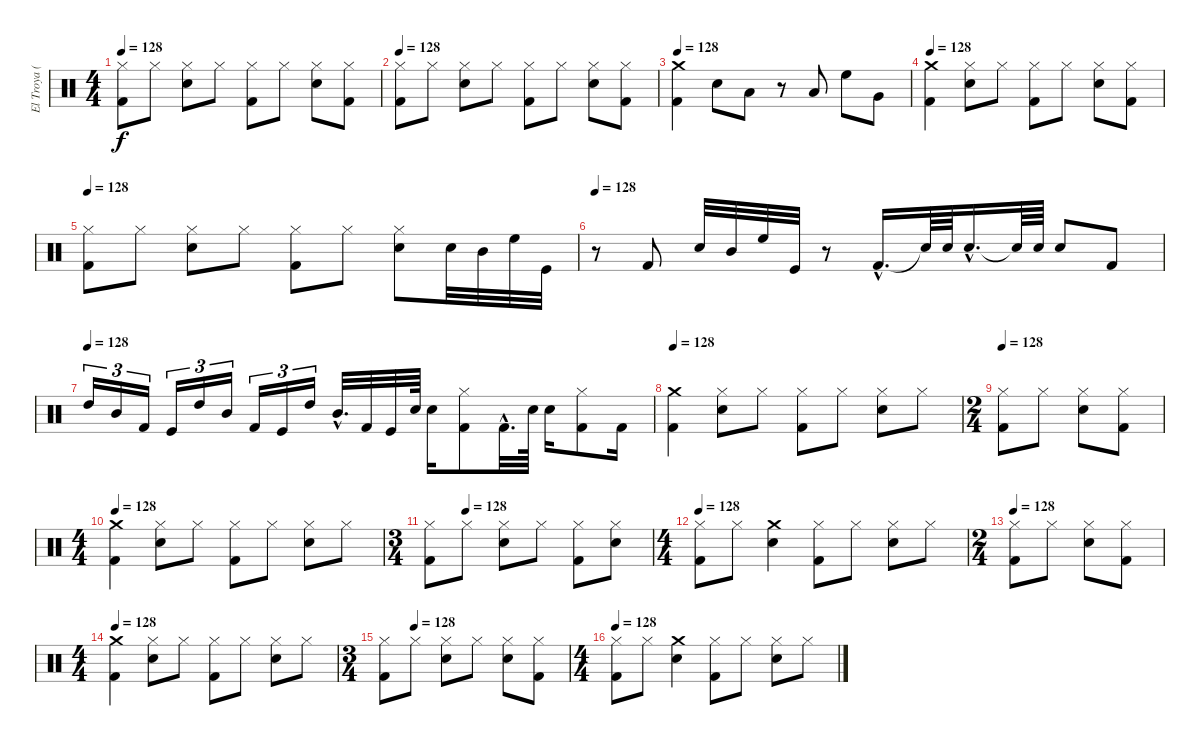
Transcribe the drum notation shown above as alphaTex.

\track ("El Troya (premio)" "El Troya (") {instrument percussion}
\staff {score}
\articulation defaults
\ts (4 4)
\tempo 128
\clef neutral
\ks c
("Hi-Hat (closed)" "Kick (hit) 2").8{dy f} "Hi-Hat (closed)".8 ("Snare (hit) 2" "Hi-Hat (closed)").8 "Hi-Hat (closed)".8 ("Hi-Hat (closed)" "Kick (hit) 2").8 "Hi-Hat (closed)".8 ("Snare (hit) 2" "Hi-Hat (closed)").8 ("Kick (hit) 2" "Hi-Hat (closed)").8 |
\tempo 128
("Hi-Hat (closed)" "Kick (hit) 2").8 "Hi-Hat (closed)".8 ("Snare (hit) 2" "Hi-Hat (closed)").8 "Hi-Hat (closed)".8 ("Hi-Hat (closed)" "Kick (hit) 2").8 "Hi-Hat (closed)".8 ("Snare (hit) 2" "Hi-Hat (closed)").8 ("Kick (hit) 2" "Hi-Hat (closed)").8 |
\tempo 128
("Kick (hit) 2" "Crash medium (hit)").4 "Snare (hit) 2".8 "Low Tom (hit)".8 r.8 "Low Tom (hit)".8 "High Floor Tom (hit)".8 "Very Low Tom (hit)".8 |
\tempo 128
("Kick (hit) 2" "Crash medium (hit)").4 ("Snare (hit) 2" "Hi-Hat (closed)").8 "Hi-Hat (closed)".8 ("Hi-Hat (closed)" "Kick (hit) 2").8 "Hi-Hat (closed)".8 ("Snare (hit) 2" "Hi-Hat (closed)").8 ("Kick (hit) 2" "Hi-Hat (closed)").8 |
\tempo 128
("Hi-Hat (closed)" "Kick (hit) 2").8 "Hi-Hat (closed)".8 ("Snare (hit) 2" "Hi-Hat (closed)").8 "Hi-Hat (closed)".8 ("Hi-Hat (closed)" "Kick (hit) 2").8 "Hi-Hat (closed)".8 ("Snare (hit) 2" "Hi-Hat (closed)").8 "Snare (hit) 2".32 "Mid Tom (hit)".32 "High Floor Tom (hit)".32 "Kick (hit)".32 |
\tempo 128
r.8 "Kick (hit) 2".8 "Snare (hit) 2".32 "Mid Tom (hit)".32 "High Floor Tom (hit)".32 "Kick (hit)".32 r.8 "Kick (hit) 2"{hac}.16{d} "Snare (hit)"{t}.64 "Snare (hit) 2".64 "Snare (hit) 2"{hac}.16{d} "Snare (hit)"{t}.64 "Snare (hit) 2".64 "Snare (hit) 2".8 "Kick (hit) 2".8 |
\tempo (128)
"High Tom (hit)".16{tu (3 2)} "Mid Tom (hit)".16{tu (3 2)} "Kick (hit) 2".16{tu (3 2)} "Kick (hit)".16{tu (3 2)} "High Tom (hit)".16{tu (3 2)} "Mid Tom (hit)".16{tu (3 2)} "Kick (hit) 2".16{tu (3 2)} "Kick (hit)".16{tu (3 2)} "High Tom (hit)".16{tu (3 2)} "Mid Tom (hit)"{hac}.32{d} "Kick (hit) 2".32 "Kick (hit)".32 "Snare (hit) 2".64 "Snare (hit) 2".16 ("Hi-Hat (closed)" "Kick (hit) 2").8 "Kick (hit) 2"{hac}.32{d} "Snare (hit) 2".64 "Snare (hit) 2".16 ("Hi-Hat (closed)" "Kick (hit) 2").8 "Kick (hit) 2".16 |
\tempo 128
("Kick (hit) 2" "Crash medium (hit)").4 ("Hi-Hat (closed)" "Snare (hit) 2").8 "Hi-Hat (closed)".8 ("Hi-Hat (closed)" "Kick (hit) 2").8 "Hi-Hat (closed)".8 ("Snare (hit) 2" "Hi-Hat (closed)").8 "Hi-Hat (closed)".8 |
\ts (2 4)
\tempo 128
("Kick (hit) 2" "Hi-Hat (closed)").8 "Hi-Hat (closed)".8 ("Snare (hit) 2" "Hi-Hat (closed)").8 ("Kick (hit) 2" "Hi-Hat (closed)").8 |
\ts (4 4)
\tempo 128
("Kick (hit) 2" "Crash medium (hit)").4 ("Hi-Hat (closed)" "Snare (hit) 2").8 "Hi-Hat (closed)".8 ("Hi-Hat (closed)" "Kick (hit) 2").8 "Hi-Hat (closed)".8 ("Snare (hit) 2" "Hi-Hat (closed)").8 "Hi-Hat (closed)".8 |
\ts (3 4)
\tempo (128 0.16666666666666666)
("Kick (hit) 2" "Hi-Hat (closed)").8 "Hi-Hat (closed)".8 ("Snare (hit) 2" "Hi-Hat (closed)").8 "Hi-Hat (closed)".8 ("Kick (hit) 2" "Hi-Hat (closed)").8 ("Snare (hit) 2" "Hi-Hat (closed)").8 |
\ts (4 4)
\tempo 128
("Hi-Hat (closed)" "Kick (hit) 2").8 "Hi-Hat (closed)".8 ("Snare (hit) 2" "Crash medium (hit)").4 ("Hi-Hat (closed)" "Kick (hit) 2").8 "Hi-Hat (closed)".8 ("Snare (hit) 2" "Hi-Hat (closed)").8 "Hi-Hat (closed)".8 |
\ts (2 4)
\tempo 128
("Kick (hit) 2" "Hi-Hat (closed)").8 "Hi-Hat (closed)".8 ("Snare (hit) 2" "Hi-Hat (closed)").8 ("Kick (hit) 2" "Hi-Hat (closed)").8 |
\ts (4 4)
\tempo 128
("Crash medium (hit)" "Kick (hit) 2").4 ("Snare (hit) 2" "Hi-Hat (closed)").8 "Hi-Hat (closed)".8 ("Hi-Hat (closed)" "Kick (hit) 2").8 "Hi-Hat (closed)".8 ("Snare (hit) 2" "Hi-Hat (closed)").8 "Hi-Hat (closed)".8 |
\ts (3 4)
\tempo (128 0.16666666666666666)
("Kick (hit) 2" "Hi-Hat (closed)").8 "Hi-Hat (closed)".8 ("Snare (hit) 2" "Hi-Hat (closed)").8 "Hi-Hat (closed)".8 ("Hi-Hat (closed)" "Snare (hit) 2").8 ("Kick (hit) 2" "Hi-Hat (closed)").8 |
\ts (4 4)
\tempo 128
("Hi-Hat (closed)" "Kick (hit) 2").8 "Hi-Hat (closed)".8 ("Snare (hit) 2" "Crash medium (hit)").4 ("Hi-Hat (closed)" "Kick (hit) 2").8 "Hi-Hat (closed)".8 ("Snare (hit) 2" "Hi-Hat (closed)").8 "Hi-Hat (closed)".8
